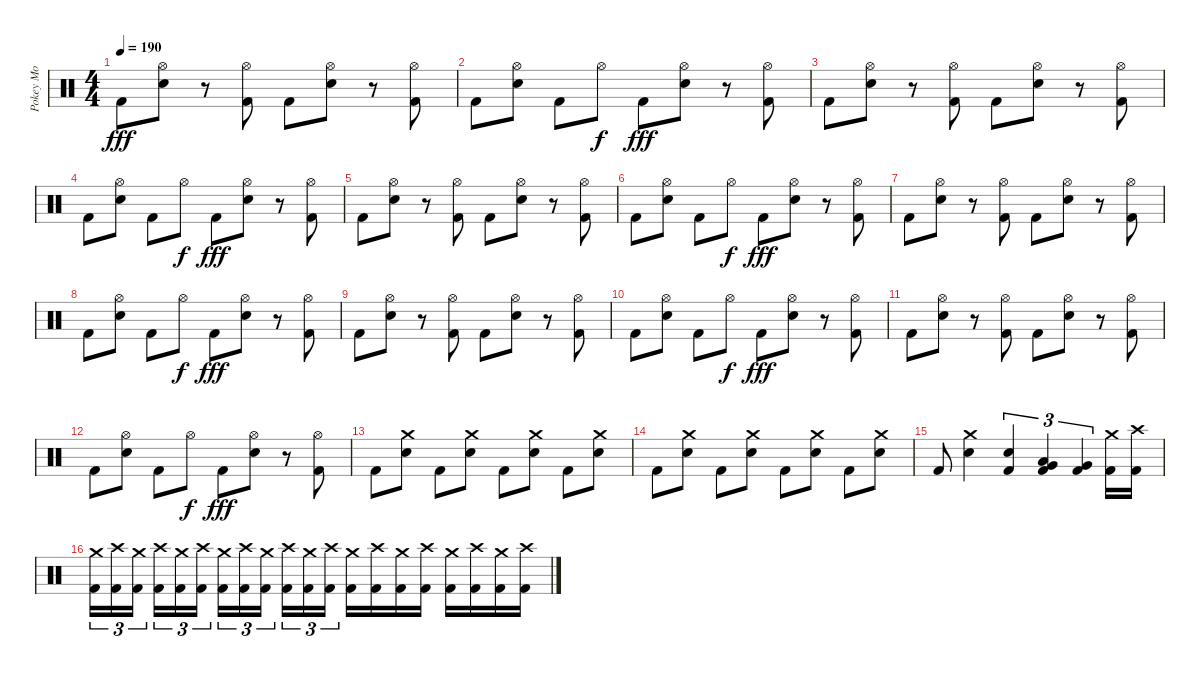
\track ("Pokey Mo" "Pokey Mo") {instrument percussion}
\staff {score}
\articulation defaults
\ts (4 4)
\tempo 190
\clef neutral
\ks c "Kick (hit) 2".8{dy fff}
("Hi-Hat (open)" "Electric Snare (hit)").8 r.8 ("Hi-Hat (open)" "Kick (hit) 2").8 "Kick (hit) 2".8 ("Hi-Hat (open)" "Electric Snare (hit)").8 r.8 ("Hi-Hat (open)" "Kick (hit) 2").8 |
"Kick (hit) 2".8 ("Hi-Hat (open)" "Electric Snare (hit)").8 "Kick (hit) 2".8 "Hi-Hat (open)".8{dy f} "Kick (hit) 2".8{dy fff} ("Hi-Hat (open)" "Electric Snare (hit)").8 r.8 ("Hi-Hat (open)" "Kick (hit) 2").8 |
"Kick (hit) 2".8 ("Hi-Hat (open)" "Electric Snare (hit)").8 r.8 ("Hi-Hat (open)" "Kick (hit) 2").8 "Kick (hit) 2".8 ("Hi-Hat (open)" "Electric Snare (hit)").8 r.8 ("Hi-Hat (open)" "Kick (hit) 2").8 |
"Kick (hit) 2".8 ("Hi-Hat (open)" "Electric Snare (hit)").8 "Kick (hit) 2".8 "Hi-Hat (open)".8{dy f} "Kick (hit) 2".8{dy fff} ("Hi-Hat (open)" "Electric Snare (hit)").8 r.8 ("Hi-Hat (open)" "Kick (hit) 2").8 |
"Kick (hit) 2".8 ("Hi-Hat (open)" "Electric Snare (hit)").8 r.8 ("Hi-Hat (open)" "Kick (hit) 2").8 "Kick (hit) 2".8 ("Hi-Hat (open)" "Electric Snare (hit)").8 r.8 ("Hi-Hat (open)" "Kick (hit) 2").8 |
"Kick (hit) 2".8 ("Hi-Hat (open)" "Electric Snare (hit)").8 "Kick (hit) 2".8 "Hi-Hat (open)".8{dy f} "Kick (hit) 2".8{dy fff} ("Hi-Hat (open)" "Electric Snare (hit)").8 r.8 ("Hi-Hat (open)" "Kick (hit) 2").8 |
"Kick (hit) 2".8 ("Hi-Hat (open)" "Electric Snare (hit)").8 r.8 ("Hi-Hat (open)" "Kick (hit) 2").8 "Kick (hit) 2".8 ("Hi-Hat (open)" "Electric Snare (hit)").8 r.8 ("Hi-Hat (open)" "Kick (hit) 2").8 |
"Kick (hit) 2".8 ("Hi-Hat (open)" "Electric Snare (hit)").8 "Kick (hit) 2".8 "Hi-Hat (open)".8{dy f} "Kick (hit) 2".8{dy fff} ("Hi-Hat (open)" "Electric Snare (hit)").8 r.8 ("Hi-Hat (open)" "Kick (hit) 2").8 |
"Kick (hit) 2".8 ("Hi-Hat (open)" "Electric Snare (hit)").8 r.8 ("Hi-Hat (open)" "Kick (hit) 2").8 "Kick (hit) 2".8 ("Hi-Hat (open)" "Electric Snare (hit)").8 r.8 ("Hi-Hat (open)" "Kick (hit) 2").8 |
"Kick (hit) 2".8 ("Hi-Hat (open)" "Electric Snare (hit)").8 "Kick (hit) 2".8 "Hi-Hat (open)".8{dy f} "Kick (hit) 2".8{dy fff} ("Hi-Hat (open)" "Electric Snare (hit)").8 r.8 ("Hi-Hat (open)" "Kick (hit) 2").8 |
"Kick (hit) 2".8 ("Hi-Hat (open)" "Electric Snare (hit)").8 r.8 ("Hi-Hat (open)" "Kick (hit) 2").8 "Kick (hit) 2".8 ("Hi-Hat (open)" "Electric Snare (hit)").8 r.8 ("Hi-Hat (open)" "Kick (hit) 2").8 |
"Kick (hit) 2".8 ("Hi-Hat (open)" "Electric Snare (hit)").8 "Kick (hit) 2".8 "Hi-Hat (open)".8{dy f} "Kick (hit) 2".8{dy fff} ("Hi-Hat (open)" "Electric Snare (hit)").8 r.8 ("Hi-Hat (open)" "Kick (hit) 2").8 |
"Kick (hit) 2".8 ("Crash medium (hit)" "Electric Snare (hit)").8 "Kick (hit) 2".8 ("Crash medium (hit)" "Electric Snare (hit)").8 "Kick (hit) 2".8 ("Crash medium (hit)" "Electric Snare (hit)").8 "Kick (hit) 2".8 ("Crash medium (hit)" "Electric Snare (hit)").8 |
"Kick (hit) 2".8 ("Crash medium (hit)" "Electric Snare (hit)").8 "Kick (hit) 2".8 ("Crash medium (hit)" "Electric Snare (hit)").8 "Kick (hit) 2".8 ("Crash medium (hit)" "Electric Snare (hit)").8 "Kick (hit) 2".8 ("Crash medium (hit)" "Electric Snare (hit)").8 |
"Kick (hit) 2".8 ("Crash medium (hit)" "Electric Snare (hit)").4 ("Electric Snare (hit)" "Kick (hit) 2").4{tu (3 2)} ("Low Tom (hit)" "Very Low Tom (hit)" "Kick (hit) 2").4{tu (3 2)} ("Very Low Tom (hit)" "Kick (hit) 2").4{tu (3 2)} ("Crash medium (hit)" "Kick (hit) 2").16 ("Crash high (hit)" "Kick (hit) 2").16 |
("Crash medium (hit)" "Kick (hit) 2").16{tu (3 2)} ("Crash high (hit)" "Kick (hit) 2").16{tu (3 2)} ("Crash medium (hit)" "Kick (hit) 2").16{tu (3 2) beam splitsecondary} ("Crash high (hit)" "Kick (hit) 2").16{tu (3 2)} ("Crash medium (hit)" "Kick (hit) 2").16{tu (3 2)} ("Crash high (hit)" "Kick (hit) 2").16{tu (3 2)} ("Crash medium (hit)" "Kick (hit) 2").16{tu (3 2)} ("Crash high (hit)" "Kick (hit) 2").16{tu (3 2)} ("Crash medium (hit)" "Kick (hit) 2").16{tu (3 2) beam splitsecondary} ("Crash high (hit)" "Kick (hit) 2").16{tu (3 2)} ("Crash medium (hit)" "Kick (hit) 2").16{tu (3 2)} ("Crash high (hit)" "Kick (hit) 2").16{tu (3 2)} ("Crash medium (hit)" "Kick (hit) 2").16 ("Crash high (hit)" "Kick (hit) 2").16 ("Crash medium (hit)" "Kick (hit) 2").16 ("Crash high (hit)" "Kick (hit) 2").16 ("Crash medium (hit)" "Kick (hit) 2").16 ("Crash high (hit)" "Kick (hit) 2").16 ("Crash medium (hit)" "Kick (hit) 2").16 ("Crash high (hit)" "Kick (hit) 2").16
